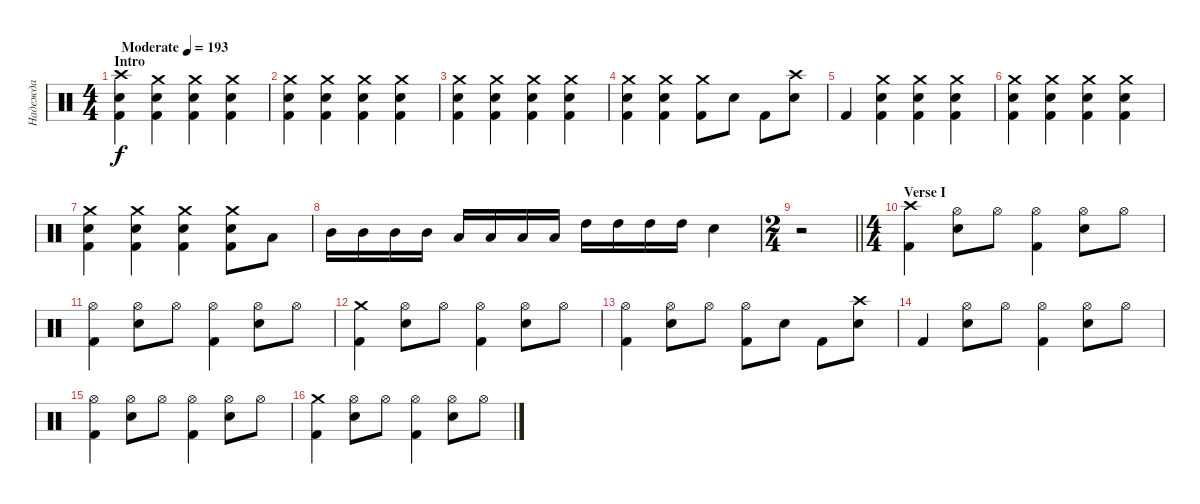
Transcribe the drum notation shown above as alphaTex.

\track ("Надежда" "Надежда") {instrument percussion}
\staff {score}
\articulation defaults
\ts (4 4)
\section ("" "Intro")
\tempo (193 "Moderate")
\clef neutral
\ks c
("Crash high (hit)" "Snare (hit) 2" "Kick (hit) 2").4{dy f} ("Crash medium (hit)" "Snare (hit) 2" "Kick (hit) 2").4 ("Crash medium (hit)" "Snare (hit) 2" "Kick (hit) 2").4 ("Crash medium (hit)" "Snare (hit) 2" "Kick (hit) 2").4 |
("Crash medium (hit)" "Snare (hit) 2" "Kick (hit) 2").4 ("Crash medium (hit)" "Snare (hit) 2" "Kick (hit) 2").4 ("Crash medium (hit)" "Snare (hit) 2" "Kick (hit) 2").4 ("Crash medium (hit)" "Snare (hit) 2" "Kick (hit) 2").4 |
("Crash medium (hit)" "Snare (hit) 2" "Kick (hit) 2").4 ("Crash medium (hit)" "Snare (hit) 2" "Kick (hit) 2").4 ("Crash medium (hit)" "Snare (hit) 2" "Kick (hit) 2").4 ("Crash medium (hit)" "Snare (hit) 2" "Kick (hit) 2").4 |
("Crash medium (hit)" "Snare (hit) 2" "Kick (hit) 2").4 ("Crash medium (hit)" "Snare (hit) 2" "Kick (hit) 2").4 ("Crash medium (hit)" "Kick (hit) 2").8 "Snare (hit) 2".8 "Kick (hit) 2".8 ("Crash high (hit)" "Snare (hit) 2").8 |
"Kick (hit) 2".4 ("Crash medium (hit)" "Snare (hit) 2" "Kick (hit) 2").4 ("Crash medium (hit)" "Snare (hit) 2" "Kick (hit) 2").4 ("Crash medium (hit)" "Snare (hit) 2" "Kick (hit) 2").4 |
("Crash medium (hit)" "Snare (hit) 2" "Kick (hit) 2").4 ("Crash medium (hit)" "Snare (hit) 2" "Kick (hit) 2").4 ("Crash medium (hit)" "Snare (hit) 2" "Kick (hit) 2").4 ("Crash medium (hit)" "Snare (hit) 2" "Kick (hit) 2").4 |
("Crash medium (hit)" "Snare (hit) 2" "Kick (hit) 2").4 ("Crash medium (hit)" "Snare (hit) 2" "Kick (hit) 2").4 ("Crash medium (hit)" "Snare (hit) 2" "Kick (hit) 2").4 ("Crash medium (hit)" "Snare (hit) 2" "Kick (hit) 2").8 "Low Tom (hit)".8 |
"Mid Tom (hit)".16 "Mid Tom (hit)".16 "Mid Tom (hit)".16 "Mid Tom (hit)".16 "Low Tom (hit)".16 "Low Tom (hit)".16 "Low Tom (hit)".16 "Low Tom (hit)".16 "High Tom (hit)".16 "High Tom (hit)".16 "High Tom (hit)".16 "High Tom (hit)".16 "Snare (hit) 2".4 |
\ts (2 4)
\barLineRight lightlight
r.2 |
\ts (4 4)
\section ("" "Verse I")
("Crash high (hit)" "Kick (hit) 2").4 ("Hi-Hat (open)" "Snare (hit) 2").8 "Hi-Hat (open)".8 ("Hi-Hat (open)" "Kick (hit) 2").4 ("Hi-Hat (open)" "Snare (hit) 2").8 "Hi-Hat (open)".8 |
("Hi-Hat (open)" "Kick (hit) 2").4 ("Hi-Hat (open)" "Snare (hit) 2").8 "Hi-Hat (open)".8 ("Hi-Hat (open)" "Kick (hit) 2").4 ("Hi-Hat (open)" "Snare (hit) 2").8 "Hi-Hat (open)".8 |
("Crash medium (hit)" "Kick (hit) 2").4 ("Hi-Hat (open)" "Snare (hit) 2").8 "Hi-Hat (open)".8 ("Hi-Hat (open)" "Kick (hit) 2").4 ("Hi-Hat (open)" "Snare (hit) 2").8 "Hi-Hat (open)".8 |
("Hi-Hat (open)" "Kick (hit) 2").4 ("Hi-Hat (open)" "Snare (hit) 2").8 "Hi-Hat (open)".8 ("Hi-Hat (open)" "Kick (hit) 2").8 "Snare (hit) 2".8 "Kick (hit) 2".8 ("Crash high (hit)" "Snare (hit) 2").8 |
"Kick (hit) 2".4 ("Hi-Hat (open)" "Snare (hit) 2").8 "Hi-Hat (open)".8 ("Hi-Hat (open)" "Kick (hit) 2").4 ("Hi-Hat (open)" "Snare (hit) 2").8 "Hi-Hat (open)".8 |
("Hi-Hat (open)" "Kick (hit) 2").4 ("Hi-Hat (open)" "Snare (hit) 2").8 "Hi-Hat (open)".8 ("Hi-Hat (open)" "Kick (hit) 2").4 ("Hi-Hat (open)" "Snare (hit) 2").8 "Hi-Hat (open)".8 |
("Crash medium (hit)" "Kick (hit) 2").4 ("Hi-Hat (open)" "Snare (hit) 2").8 "Hi-Hat (open)".8 ("Hi-Hat (open)" "Kick (hit) 2").4 ("Hi-Hat (open)" "Snare (hit) 2").8 "Hi-Hat (open)".8
